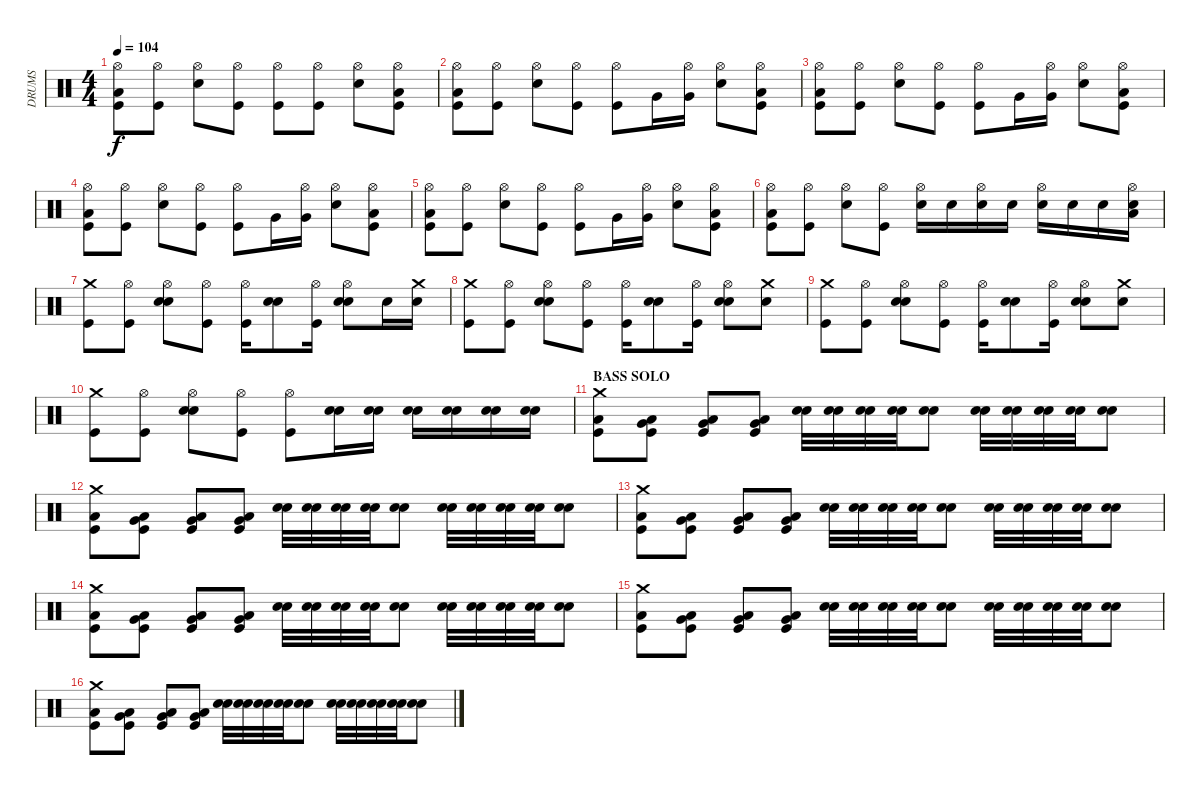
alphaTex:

\track ("DRUMS" "DRUMS") {instrument percussion}
\staff {score}
\articulation defaults
\ts (4 4)
\tempo 104
\clef neutral
\ks c
("Kick (hit)" "Hi-Hat (open)" "Low Floor Tom (hit)").8{dy f} ("Kick (hit)" "Hi-Hat (open)").8 ("Snare (hit) 2" "Hi-Hat (open)").8 ("Kick (hit)" "Hi-Hat (open)").8 ("Kick (hit)" "Hi-Hat (open)").8 ("Kick (hit)" "Hi-Hat (open)").8 ("Snare (hit) 2" "Hi-Hat (open)").8 ("Kick (hit)" "Hi-Hat (open)" "Low Floor Tom (hit)").8 |
("Kick (hit)" "Hi-Hat (open)" "Low Floor Tom (hit)").8 ("Kick (hit)" "Hi-Hat (open)").8 ("Snare (hit) 2" "Hi-Hat (open)").8 ("Kick (hit)" "Hi-Hat (open)").8 ("Kick (hit)" "Hi-Hat (open)").8 "Very Low Tom (hit)".16 ("Very Low Tom (hit)" "Hi-Hat (open)").16 ("Snare (hit) 2" "Hi-Hat (open)").8 ("Kick (hit)" "Hi-Hat (open)" "Low Floor Tom (hit)").8 |
("Kick (hit)" "Hi-Hat (open)" "Low Floor Tom (hit)").8 ("Kick (hit)" "Hi-Hat (open)").8 ("Snare (hit) 2" "Hi-Hat (open)").8 ("Kick (hit)" "Hi-Hat (open)").8 ("Kick (hit)" "Hi-Hat (open)").8 "Very Low Tom (hit)".16 ("Very Low Tom (hit)" "Hi-Hat (open)").16 ("Snare (hit) 2" "Hi-Hat (open)").8 ("Kick (hit)" "Hi-Hat (open)" "Low Floor Tom (hit)").8 |
("Kick (hit)" "Hi-Hat (open)" "Low Floor Tom (hit)").8 ("Kick (hit)" "Hi-Hat (open)").8 ("Snare (hit) 2" "Hi-Hat (open)").8 ("Kick (hit)" "Hi-Hat (open)").8 ("Kick (hit)" "Hi-Hat (open)").8 "Very Low Tom (hit)".16 ("Very Low Tom (hit)" "Hi-Hat (open)").16 ("Snare (hit) 2" "Hi-Hat (open)").8 ("Kick (hit)" "Hi-Hat (open)" "Low Floor Tom (hit)").8 |
("Kick (hit)" "Hi-Hat (open)" "Low Floor Tom (hit)").8 ("Kick (hit)" "Hi-Hat (open)").8 ("Snare (hit) 2" "Hi-Hat (open)").8 ("Kick (hit)" "Hi-Hat (open)").8 ("Kick (hit)" "Hi-Hat (open)").8 "Very Low Tom (hit)".16 ("Very Low Tom (hit)" "Hi-Hat (open)").16 ("Snare (hit) 2" "Hi-Hat (open)").8 ("Kick (hit)" "Hi-Hat (open)" "Low Floor Tom (hit)").8 |
("Kick (hit)" "Hi-Hat (open)" "Low Floor Tom (hit)").8 ("Kick (hit)" "Hi-Hat (open)").8 ("Snare (hit) 2" "Hi-Hat (open)").8 ("Kick (hit)" "Hi-Hat (open)").8 ("Snare (hit) 2" "Hi-Hat (open)").16 "Snare (hit) 2".16 ("Snare (hit) 2" "Hi-Hat (open)").16 "Snare (hit) 2".16 ("Snare (hit) 2" "Hi-Hat (open)").16 "Snare (hit) 2".16 "Snare (hit) 2".16 ("Snare (hit) 2" "Hi-Hat (open)" "Low Floor Tom (hit)").16 |
("Kick (hit)" "Crash medium (hit)").8 ("Kick (hit)" "Hi-Hat (open)").8 ("Snare (hit) 2" "Hi-Hat (open)" "Electric Snare (hit)").8 ("Kick (hit)" "Hi-Hat (open)").8 ("Kick (hit)" "Hi-Hat (open)").16 ("Snare (hit) 2" "Electric Snare (hit)").8 ("Kick (hit)" "Hi-Hat (open)").16 ("Snare (hit) 2" "Electric Snare (hit)" "Hi-Hat (open)").8 "Snare (hit) 2".16 ("Snare (hit) 2" "Crash medium (hit)").16 |
("Kick (hit)" "Crash medium (hit)").8 ("Kick (hit)" "Hi-Hat (open)").8 ("Snare (hit) 2" "Hi-Hat (open)" "Electric Snare (hit)").8 ("Kick (hit)" "Hi-Hat (open)").8 ("Kick (hit)" "Hi-Hat (open)").16 ("Snare (hit) 2" "Electric Snare (hit)").8 ("Kick (hit)" "Hi-Hat (open)").16 ("Snare (hit) 2" "Electric Snare (hit)" "Hi-Hat (open)").8 ("Snare (hit) 2" "Crash medium (hit)").8 |
("Kick (hit)" "Crash medium (hit)").8 ("Kick (hit)" "Hi-Hat (open)").8 ("Snare (hit) 2" "Hi-Hat (open)" "Electric Snare (hit)").8 ("Kick (hit)" "Hi-Hat (open)").8 ("Kick (hit)" "Hi-Hat (open)").16 ("Snare (hit) 2" "Electric Snare (hit)").8 ("Kick (hit)" "Hi-Hat (open)").16 ("Snare (hit) 2" "Electric Snare (hit)" "Hi-Hat (open)").8 ("Snare (hit) 2" "Crash medium (hit)").8 |
("Kick (hit)" "Crash medium (hit)").8 ("Kick (hit)" "Hi-Hat (open)").8 ("Snare (hit) 2" "Hi-Hat (open)" "Electric Snare (hit)").8 ("Kick (hit)" "Hi-Hat (open)").8 ("Kick (hit)" "Hi-Hat (open)").8 ("Snare (hit) 2" "Electric Snare (hit)").16 ("Snare (hit) 2" "Electric Snare (hit)").16 ("Snare (hit) 2" "Electric Snare (hit)").16 ("Snare (hit) 2" "Electric Snare (hit)").16 ("Snare (hit) 2" "Electric Snare (hit)").16 ("Snare (hit) 2" "Electric Snare (hit)").16 |
\section ("" "BASS SOLO")
("Kick (hit)" "Low Floor Tom (hit)" "Crash medium (hit)").8 ("Kick (hit)" "Low Floor Tom (hit)" "Very Low Tom (hit)").8 ("Kick (hit)" "Low Floor Tom (hit)" "Very Low Tom (hit)").8 ("Kick (hit)" "Low Floor Tom (hit)" "Very Low Tom (hit)").8 ("Electric Snare (hit)" "Snare (hit) 2").32 ("Electric Snare (hit)" "Snare (hit) 2").32 ("Electric Snare (hit)" "Snare (hit) 2").32 ("Electric Snare (hit)" "Snare (hit) 2").32 ("Electric Snare (hit)" "Snare (hit) 2").8 ("Electric Snare (hit)" "Snare (hit) 2").32 ("Electric Snare (hit)" "Snare (hit) 2").32 ("Electric Snare (hit)" "Snare (hit) 2").32 ("Electric Snare (hit)" "Snare (hit) 2").32 ("Electric Snare (hit)" "Snare (hit) 2").8 |
("Kick (hit)" "Low Floor Tom (hit)" "Crash medium (hit)").8 ("Kick (hit)" "Low Floor Tom (hit)" "Very Low Tom (hit)").8 ("Kick (hit)" "Low Floor Tom (hit)" "Very Low Tom (hit)").8 ("Kick (hit)" "Low Floor Tom (hit)" "Very Low Tom (hit)").8 ("Electric Snare (hit)" "Snare (hit) 2").32 ("Electric Snare (hit)" "Snare (hit) 2").32 ("Electric Snare (hit)" "Snare (hit) 2").32 ("Electric Snare (hit)" "Snare (hit) 2").32 ("Electric Snare (hit)" "Snare (hit) 2").8 ("Electric Snare (hit)" "Snare (hit) 2").32 ("Electric Snare (hit)" "Snare (hit) 2").32 ("Electric Snare (hit)" "Snare (hit) 2").32 ("Electric Snare (hit)" "Snare (hit) 2").32 ("Electric Snare (hit)" "Snare (hit) 2").8 |
("Kick (hit)" "Low Floor Tom (hit)" "Crash medium (hit)").8 ("Kick (hit)" "Low Floor Tom (hit)" "Very Low Tom (hit)").8 ("Kick (hit)" "Low Floor Tom (hit)" "Very Low Tom (hit)").8 ("Kick (hit)" "Low Floor Tom (hit)" "Very Low Tom (hit)").8 ("Electric Snare (hit)" "Snare (hit) 2").32 ("Electric Snare (hit)" "Snare (hit) 2").32 ("Electric Snare (hit)" "Snare (hit) 2").32 ("Electric Snare (hit)" "Snare (hit) 2").32 ("Electric Snare (hit)" "Snare (hit) 2").8 ("Electric Snare (hit)" "Snare (hit) 2").32 ("Electric Snare (hit)" "Snare (hit) 2").32 ("Electric Snare (hit)" "Snare (hit) 2").32 ("Electric Snare (hit)" "Snare (hit) 2").32 ("Electric Snare (hit)" "Snare (hit) 2").8 |
("Kick (hit)" "Low Floor Tom (hit)" "Crash medium (hit)").8 ("Kick (hit)" "Low Floor Tom (hit)" "Very Low Tom (hit)").8 ("Kick (hit)" "Low Floor Tom (hit)" "Very Low Tom (hit)").8 ("Kick (hit)" "Low Floor Tom (hit)" "Very Low Tom (hit)").8 ("Electric Snare (hit)" "Snare (hit) 2").32 ("Electric Snare (hit)" "Snare (hit) 2").32 ("Electric Snare (hit)" "Snare (hit) 2").32 ("Electric Snare (hit)" "Snare (hit) 2").32 ("Electric Snare (hit)" "Snare (hit) 2").8 ("Electric Snare (hit)" "Snare (hit) 2").32 ("Electric Snare (hit)" "Snare (hit) 2").32 ("Electric Snare (hit)" "Snare (hit) 2").32 ("Electric Snare (hit)" "Snare (hit) 2").32 ("Electric Snare (hit)" "Snare (hit) 2").8 |
\section ("" "")
("Kick (hit)" "Low Floor Tom (hit)" "Crash medium (hit)").8 ("Kick (hit)" "Low Floor Tom (hit)" "Very Low Tom (hit)").8 ("Kick (hit)" "Low Floor Tom (hit)" "Very Low Tom (hit)").8 ("Kick (hit)" "Low Floor Tom (hit)" "Very Low Tom (hit)").8 ("Electric Snare (hit)" "Snare (hit) 2").32 ("Electric Snare (hit)" "Snare (hit) 2").32 ("Electric Snare (hit)" "Snare (hit) 2").32 ("Electric Snare (hit)" "Snare (hit) 2").32 ("Electric Snare (hit)" "Snare (hit) 2").8 ("Electric Snare (hit)" "Snare (hit) 2").32 ("Electric Snare (hit)" "Snare (hit) 2").32 ("Electric Snare (hit)" "Snare (hit) 2").32 ("Electric Snare (hit)" "Snare (hit) 2").32 ("Electric Snare (hit)" "Snare (hit) 2").8 |
("Kick (hit)" "Low Floor Tom (hit)" "Crash medium (hit)").8 ("Kick (hit)" "Low Floor Tom (hit)" "Very Low Tom (hit)").8 ("Kick (hit)" "Low Floor Tom (hit)" "Very Low Tom (hit)").8 ("Kick (hit)" "Low Floor Tom (hit)" "Very Low Tom (hit)").8 ("Electric Snare (hit)" "Snare (hit) 2").32 ("Electric Snare (hit)" "Snare (hit) 2").32 ("Electric Snare (hit)" "Snare (hit) 2").32 ("Electric Snare (hit)" "Snare (hit) 2").32 ("Electric Snare (hit)" "Snare (hit) 2").8 ("Electric Snare (hit)" "Snare (hit) 2").32 ("Electric Snare (hit)" "Snare (hit) 2").32 ("Electric Snare (hit)" "Snare (hit) 2").32 ("Electric Snare (hit)" "Snare (hit) 2").32 ("Electric Snare (hit)" "Snare (hit) 2").8
